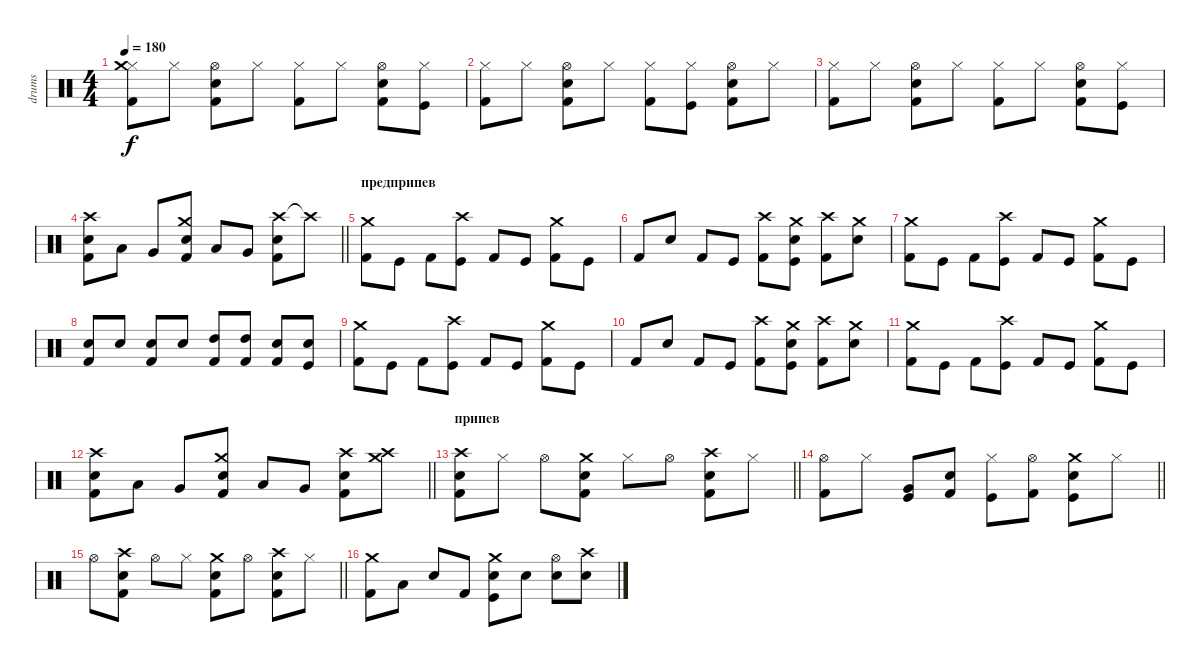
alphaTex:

\track ("drums" "drums") {instrument percussion}
\staff {score}
\articulation defaults
\ts (4 4)
\tempo 180
\clef neutral
\ks c
("Hi-Hat (closed)" "Kick (hit) 2" "Crash medium (hit)").8{dy f} "Hi-Hat (closed)".8 ("Hi-Hat (open)" "Electric Snare (hit)" "Kick (hit) 2").8 "Hi-Hat (closed)".8 ("Hi-Hat (closed)" "Kick (hit) 2").8 "Hi-Hat (closed)".8 ("Hi-Hat (open)" "Electric Snare (hit)" "Kick (hit) 2").8 ("Hi-Hat (closed)" "Kick (hit)").8 |
("Hi-Hat (closed)" "Kick (hit) 2").8 "Hi-Hat (closed)".8 ("Hi-Hat (open)" "Electric Snare (hit)" "Kick (hit) 2").8 "Hi-Hat (closed)".8 ("Hi-Hat (closed)" "Kick (hit) 2").8 ("Hi-Hat (closed)" "Kick (hit)").8 ("Hi-Hat (open)" "Electric Snare (hit)" "Kick (hit) 2").8 "Hi-Hat (closed)".8 |
("Hi-Hat (closed)" "Kick (hit) 2").8 "Hi-Hat (closed)".8 ("Hi-Hat (open)" "Electric Snare (hit)" "Kick (hit) 2").8 "Hi-Hat (closed)".8 ("Hi-Hat (closed)" "Kick (hit) 2").8 "Hi-Hat (closed)".8 ("Hi-Hat (open)" "Electric Snare (hit)" "Kick (hit) 2").8 ("Hi-Hat (closed)" "Kick (hit)").8 |
\barLineRight lightlight
("Crash high (hit)" "Electric Snare (hit)" "Kick (hit) 2").8 "Low Tom (hit)".8 "Very Low Tom (hit)".8 ("Crash medium (hit)" "Electric Snare (hit)" "Kick (hit) 2").8 "Low Tom (hit)".8 "Very Low Tom (hit)".8 ("Crash high (hit)" "Electric Snare (hit)" "Kick (hit) 2").8 "Crash high (hit)"{t}.8 |
\section ("" "предприпев")
("Kick (hit) 2" "Crash medium (hit)").8 "Kick (hit)".8 "Kick (hit) 2".8 ("Kick (hit)" "Crash high (hit)").8 "Kick (hit) 2".8 "Kick (hit)".8 ("Kick (hit) 2" "Crash medium (hit)").8 "Kick (hit)".8 |
"Kick (hit) 2".8 "Electric Snare (hit)".8 "Kick (hit) 2".8 "Kick (hit)".8 ("Kick (hit) 2" "Crash high (hit)").8 ("Electric Snare (hit)" "Kick (hit)" "Crash medium (hit)").8 ("Kick (hit) 2" "Crash high (hit)").8 ("Electric Snare (hit)" "Crash medium (hit)").8 |
("Kick (hit) 2" "Crash medium (hit)").8 "Kick (hit)".8 "Kick (hit) 2".8 ("Kick (hit)" "Crash high (hit)").8 "Kick (hit) 2".8 "Kick (hit)".8 ("Kick (hit) 2" "Crash medium (hit)").8 "Kick (hit)".8 |
("Electric Snare (hit)" "Kick (hit) 2").8 "Electric Snare (hit)".8 ("Electric Snare (hit)" "Kick (hit) 2").8 "Electric Snare (hit)".8 ("High Tom (hit)" "Kick (hit) 2").8 ("High Tom (hit)" "Kick (hit) 2").8 ("Electric Snare (hit)" "Kick (hit) 2").8 ("Electric Snare (hit)" "Kick (hit)").8 |
("Kick (hit) 2" "Crash medium (hit)").8 "Kick (hit)".8 "Kick (hit) 2".8 ("Kick (hit)" "Crash high (hit)").8 "Kick (hit) 2".8 "Kick (hit)".8 ("Kick (hit) 2" "Crash medium (hit)").8 "Kick (hit)".8 |
"Kick (hit) 2".8 "Electric Snare (hit)".8 "Kick (hit) 2".8 "Kick (hit)".8 ("Kick (hit) 2" "Crash high (hit)").8 ("Electric Snare (hit)" "Kick (hit)" "Crash medium (hit)").8 ("Kick (hit) 2" "Crash high (hit)").8 ("Electric Snare (hit)" "Crash medium (hit)").8 |
("Kick (hit) 2" "Crash medium (hit)").8 "Kick (hit)".8 "Kick (hit) 2".8 ("Kick (hit)" "Crash high (hit)").8 "Kick (hit) 2".8 "Kick (hit)".8 ("Kick (hit) 2" "Crash medium (hit)").8 "Kick (hit)".8 |
\barLineRight lightlight
("Crash high (hit)" "Electric Snare (hit)" "Kick (hit) 2").8 "Low Tom (hit)".8 "Very Low Tom (hit)".8 ("Crash medium (hit)" "Electric Snare (hit)" "Kick (hit) 2").8 "Low Tom (hit)".8 "Very Low Tom (hit)".8 ("Crash high (hit)" "Electric Snare (hit)" "Kick (hit) 2").8 ("Crash medium (hit)" "Crash high (hit)").8 |
\section ("" "припев")
\barLineRight lightlight
("Crash high (hit)" "Electric Snare (hit)" "Kick (hit) 2").8 "Hi-Hat (closed)".8 "Hi-Hat (open)".8 ("Crash medium (hit)" "Electric Snare (hit)" "Kick (hit) 2").8 "Hi-Hat (closed)".8 "Hi-Hat (open)".8 ("Crash high (hit)" "Electric Snare (hit)" "Kick (hit) 2").8 "Hi-Hat (closed)".8 |
\barLineRight lightlight
("Hi-Hat (open)" "Kick (hit) 2").8 "Hi-Hat (closed)".8 ("Very Low Tom (hit)" "Kick (hit)").8 ("Electric Snare (hit)" "Kick (hit) 2").8 ("Hi-Hat (closed)" "Kick (hit)").8 ("Hi-Hat (open)" "Kick (hit) 2").8 ("Crash medium (hit)" "Electric Snare (hit)" "Kick (hit)").8 "Hi-Hat (closed)".8 |
\barLineRight lightlight "Hi-Hat (open)".8
("Crash high (hit)" "Electric Snare (hit)" "Kick (hit) 2").8 "Hi-Hat (open)".8 "Hi-Hat (closed)".8 ("Crash medium (hit)" "Electric Snare (hit)" "Kick (hit) 2").8 "Hi-Hat (open)".8 ("Crash high (hit)" "Electric Snare (hit)" "Kick (hit) 2").8 "Hi-Hat (closed)".8 |
("Kick (hit) 2" "Crash medium (hit)").8 "Low Floor Tom (hit)".8 "Electric Snare (hit)".8 "Kick (hit) 2".8 ("Electric Snare (hit)" "Kick (hit)" "Crash medium (hit)").8 "Electric Snare (hit)".8 ("Electric Snare (hit)" "Hi-Hat (open)").8 ("Electric Snare (hit)" "Crash high (hit)").8
